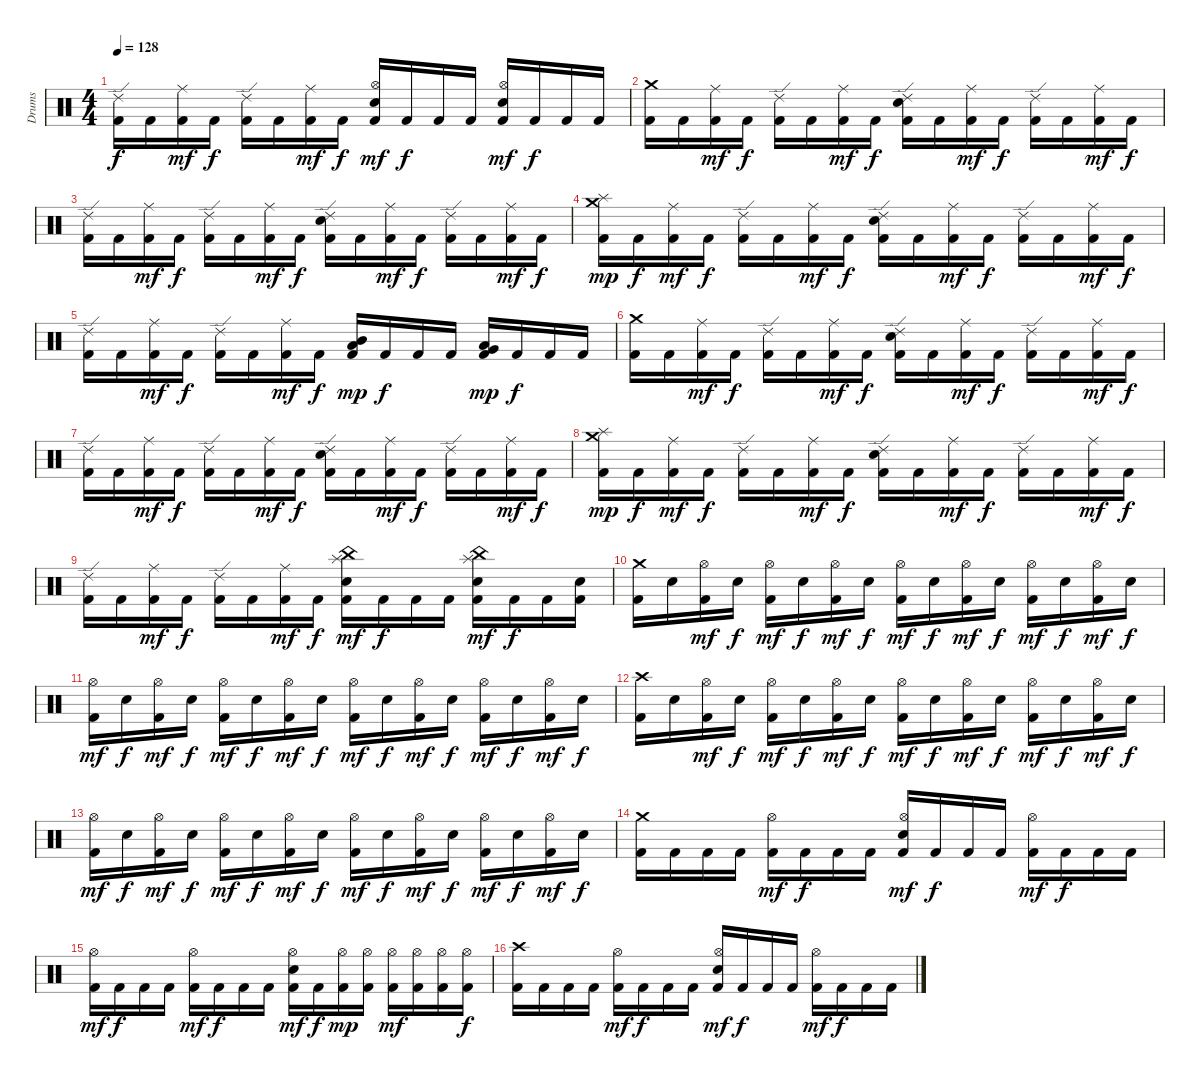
\track ("Drums" "Drums") {instrument percussion}
\staff {score}
\articulation defaults
\ts (4 4)
\tempo 128
\clef neutral
\ks c
("Ride (edge) 2" "Kick (hit) 2").16{dy f} "Kick (hit) 2".16 ("Ride (middle)" "Kick (hit) 2").16{dy mf} "Kick (hit) 2".16{dy f} ("Ride (edge) 2" "Kick (hit) 2").16 "Kick (hit) 2".16 ("Ride (middle)" "Kick (hit) 2").16{dy mf} "Kick (hit) 2".16{dy f} ("Hi-Hat (open)" "Electric Snare (hit)" "Kick (hit) 2").16{dy mf} "Kick (hit) 2".16{dy f} "Kick (hit) 2".16 "Kick (hit) 2".16 ("Hi-Hat (open)" "Electric Snare (hit)" "Kick (hit) 2").16{dy mf} "Kick (hit) 2".16{dy f} "Kick (hit) 2".16 "Kick (hit) 2".16 |
("Crash medium (hit)" "Kick (hit) 2").16 "Kick (hit) 2".16 ("Ride (middle)" "Kick (hit) 2").16{dy mf} "Kick (hit) 2".16{dy f} ("Ride (edge) 2" "Kick (hit) 2").16 "Kick (hit) 2".16 ("Ride (middle)" "Kick (hit) 2").16{dy mf} "Kick (hit) 2".16{dy f} ("Ride (edge) 2" "Electric Snare (hit)" "Kick (hit) 2").16 "Kick (hit) 2".16 ("Ride (middle)" "Kick (hit) 2").16{dy mf} "Kick (hit) 2".16{dy f} ("Ride (edge) 2" "Kick (hit) 2").16 "Kick (hit) 2".16 ("Ride (middle)" "Kick (hit) 2").16{dy mf} "Kick (hit) 2".16{dy f} |
("Ride (edge) 2" "Kick (hit) 2").16 "Kick (hit) 2".16 ("Ride (middle)" "Kick (hit) 2").16{dy mf} "Kick (hit) 2".16{dy f} ("Ride (edge) 2" "Kick (hit) 2").16 "Kick (hit) 2".16 ("Ride (middle)" "Kick (hit) 2").16{dy mf} "Kick (hit) 2".16{dy f} ("Ride (edge) 2" "Electric Snare (hit)" "Kick (hit) 2").16 "Kick (hit) 2".16 ("Ride (middle)" "Kick (hit) 2").16{dy mf} "Kick (hit) 2".16{dy f} ("Ride (edge) 2" "Kick (hit) 2").16 "Kick (hit) 2".16 ("Ride (middle)" "Kick (hit) 2").16{dy mf} "Kick (hit) 2".16{dy f} |
("Crash medium (hit)" "Splash (hit)" "Kick (hit) 2").16{dy mp} "Kick (hit) 2".16{dy f} ("Ride (middle)" "Kick (hit) 2").16{dy mf} "Kick (hit) 2".16{dy f} ("Ride (edge) 2" "Kick (hit) 2").16 "Kick (hit) 2".16 ("Ride (middle)" "Kick (hit) 2").16{dy mf} "Kick (hit) 2".16{dy f} ("Ride (edge) 2" "Electric Snare (hit)" "Kick (hit) 2").16 "Kick (hit) 2".16 ("Ride (middle)" "Kick (hit) 2").16{dy mf} "Kick (hit) 2".16{dy f} ("Ride (edge) 2" "Kick (hit) 2").16 "Kick (hit) 2".16 ("Ride (middle)" "Kick (hit) 2").16{dy mf} "Kick (hit) 2".16{dy f} |
("Ride (edge) 2" "Kick (hit) 2").16 "Kick (hit) 2".16 ("Ride (middle)" "Kick (hit) 2").16{dy mf} "Kick (hit) 2".16{dy f} ("Ride (edge) 2" "Kick (hit) 2").16 "Kick (hit) 2".16 ("Ride (middle)" "Kick (hit) 2").16{dy mf} "Kick (hit) 2".16{dy f} ("Mid Tom (hit)" "Low Tom (hit)" "Kick (hit) 2").16{dy mp} "Kick (hit) 2".16{dy f} "Kick (hit) 2".16 "Kick (hit) 2".16 ("Low Tom (hit)" "Very Low Tom (hit)" "Kick (hit) 2").16{dy mp} "Kick (hit) 2".16{dy f} "Kick (hit) 2".16 "Kick (hit) 2".16 |
("Crash medium (hit)" "Kick (hit) 2").16 "Kick (hit) 2".16 ("Ride (middle)" "Kick (hit) 2").16{dy mf} "Kick (hit) 2".16{dy f} ("Ride (edge) 2" "Kick (hit) 2").16 "Kick (hit) 2".16 ("Ride (middle)" "Kick (hit) 2").16{dy mf} "Kick (hit) 2".16{dy f} ("Ride (edge) 2" "Electric Snare (hit)" "Kick (hit) 2").16 "Kick (hit) 2".16 ("Ride (middle)" "Kick (hit) 2").16{dy mf} "Kick (hit) 2".16{dy f} ("Ride (edge) 2" "Kick (hit) 2").16 "Kick (hit) 2".16 ("Ride (middle)" "Kick (hit) 2").16{dy mf} "Kick (hit) 2".16{dy f} |
("Ride (edge) 2" "Kick (hit) 2").16 "Kick (hit) 2".16 ("Ride (middle)" "Kick (hit) 2").16{dy mf} "Kick (hit) 2".16{dy f} ("Ride (edge) 2" "Kick (hit) 2").16 "Kick (hit) 2".16 ("Ride (middle)" "Kick (hit) 2").16{dy mf} "Kick (hit) 2".16{dy f} ("Ride (edge) 2" "Electric Snare (hit)" "Kick (hit) 2").16 "Kick (hit) 2".16 ("Ride (middle)" "Kick (hit) 2").16{dy mf} "Kick (hit) 2".16{dy f} ("Ride (edge) 2" "Kick (hit) 2").16 "Kick (hit) 2".16 ("Ride (middle)" "Kick (hit) 2").16{dy mf} "Kick (hit) 2".16{dy f} |
("Crash medium (hit)" "Splash (hit)" "Kick (hit) 2").16{dy mp} "Kick (hit) 2".16{dy f} ("Ride (middle)" "Kick (hit) 2").16{dy mf} "Kick (hit) 2".16{dy f} ("Ride (edge) 2" "Kick (hit) 2").16 "Kick (hit) 2".16 ("Ride (middle)" "Kick (hit) 2").16{dy mf} "Kick (hit) 2".16{dy f} ("Ride (edge) 2" "Electric Snare (hit)" "Kick (hit) 2").16 "Kick (hit) 2".16 ("Ride (middle)" "Kick (hit) 2").16{dy mf} "Kick (hit) 2".16{dy f} ("Ride (edge) 2" "Kick (hit) 2").16 "Kick (hit) 2".16 ("Ride (middle)" "Kick (hit) 2").16{dy mf} "Kick (hit) 2".16{dy f} |
("Ride (edge) 2" "Kick (hit) 2").16 "Kick (hit) 2".16 ("Ride (middle)" "Kick (hit) 2").16{dy mf} "Kick (hit) 2".16{dy f} ("Ride (edge) 2" "Kick (hit) 2").16 "Kick (hit) 2".16 ("Ride (middle)" "Kick (hit) 2").16{dy mf} "Kick (hit) 2".16{dy f} ("China (hit)" "Splash (hit)" "Electric Snare (hit)" "Kick (hit) 2").16{dy mf} "Kick (hit) 2".16{dy f} "Kick (hit) 2".16 "Kick (hit) 2".16 ("China (hit)" "Splash (hit)" "Electric Snare (hit)" "Kick (hit) 2").16{dy mf} "Kick (hit) 2".16{dy f} "Kick (hit) 2".16 ("Electric Snare (hit)" "Kick (hit) 2").16 |
("Crash medium (hit)" "Kick (hit) 2").16 "Electric Snare (hit)".16 ("Hi-Hat (open)" "Kick (hit) 2").16{dy mf} "Electric Snare (hit)".16{dy f} ("Hi-Hat (open)" "Kick (hit) 2").16{dy mf} "Electric Snare (hit)".16{dy f} ("Hi-Hat (open)" "Kick (hit) 2").16{dy mf} "Electric Snare (hit)".16{dy f} ("Hi-Hat (open)" "Kick (hit) 2").16{dy mf} "Electric Snare (hit)".16{dy f} ("Hi-Hat (open)" "Kick (hit) 2").16{dy mf} "Electric Snare (hit)".16{dy f} ("Hi-Hat (open)" "Kick (hit) 2").16{dy mf} "Electric Snare (hit)".16{dy f} ("Hi-Hat (open)" "Kick (hit) 2").16{dy mf} "Electric Snare (hit)".16{dy f} |
("Hi-Hat (open)" "Kick (hit) 2").16{dy mf} "Electric Snare (hit)".16{dy f} ("Hi-Hat (open)" "Kick (hit) 2").16{dy mf} "Electric Snare (hit)".16{dy f} ("Hi-Hat (open)" "Kick (hit) 2").16{dy mf} "Electric Snare (hit)".16{dy f} ("Hi-Hat (open)" "Kick (hit) 2").16{dy mf} "Electric Snare (hit)".16{dy f} ("Hi-Hat (open)" "Kick (hit) 2").16{dy mf} "Electric Snare (hit)".16{dy f} ("Hi-Hat (open)" "Kick (hit) 2").16{dy mf} "Electric Snare (hit)".16{dy f} ("Hi-Hat (open)" "Kick (hit) 2").16{dy mf} "Electric Snare (hit)".16{dy f} ("Hi-Hat (open)" "Kick (hit) 2").16{dy mf} "Electric Snare (hit)".16{dy f} |
("Crash high (hit)" "Kick (hit) 2").16 "Electric Snare (hit)".16 ("Hi-Hat (open)" "Kick (hit) 2").16{dy mf} "Electric Snare (hit)".16{dy f} ("Hi-Hat (open)" "Kick (hit) 2").16{dy mf} "Electric Snare (hit)".16{dy f} ("Hi-Hat (open)" "Kick (hit) 2").16{dy mf} "Electric Snare (hit)".16{dy f} ("Hi-Hat (open)" "Kick (hit) 2").16{dy mf} "Electric Snare (hit)".16{dy f} ("Hi-Hat (open)" "Kick (hit) 2").16{dy mf} "Electric Snare (hit)".16{dy f} ("Hi-Hat (open)" "Kick (hit) 2").16{dy mf} "Electric Snare (hit)".16{dy f} ("Hi-Hat (open)" "Kick (hit) 2").16{dy mf} "Electric Snare (hit)".16{dy f} |
("Hi-Hat (open)" "Kick (hit) 2").16{dy mf} "Electric Snare (hit)".16{dy f} ("Hi-Hat (open)" "Kick (hit) 2").16{dy mf} "Electric Snare (hit)".16{dy f} ("Hi-Hat (open)" "Kick (hit) 2").16{dy mf} "Electric Snare (hit)".16{dy f} ("Hi-Hat (open)" "Kick (hit) 2").16{dy mf} "Electric Snare (hit)".16{dy f} ("Hi-Hat (open)" "Kick (hit) 2").16{dy mf} "Electric Snare (hit)".16{dy f} ("Hi-Hat (open)" "Kick (hit) 2").16{dy mf} "Electric Snare (hit)".16{dy f} ("Hi-Hat (open)" "Kick (hit) 2").16{dy mf} "Electric Snare (hit)".16{dy f} ("Hi-Hat (open)" "Kick (hit) 2").16{dy mf} "Electric Snare (hit)".16{dy f} |
("Crash medium (hit)" "Kick (hit) 2").16 "Kick (hit) 2".16 "Kick (hit) 2".16 "Kick (hit) 2".16 ("Hi-Hat (open)" "Kick (hit) 2").16{dy mf} "Kick (hit) 2".16{dy f} "Kick (hit) 2".16 "Kick (hit) 2".16 ("Hi-Hat (open)" "Electric Snare (hit)" "Kick (hit) 2").16{dy mf} "Kick (hit) 2".16{dy f} "Kick (hit) 2".16 "Kick (hit) 2".16 ("Hi-Hat (open)" "Kick (hit) 2").16{dy mf} "Kick (hit) 2".16{dy f} "Kick (hit) 2".16 "Kick (hit) 2".16 |
("Hi-Hat (open)" "Kick (hit) 2").16{dy mf} "Kick (hit) 2".16{dy f} "Kick (hit) 2".16 "Kick (hit) 2".16 ("Hi-Hat (open)" "Kick (hit) 2").16{dy mf} "Kick (hit) 2".16{dy f} "Kick (hit) 2".16 "Kick (hit) 2".16 ("Hi-Hat (open)" "Electric Snare (hit)" "Kick (hit) 2").16{dy mf} "Kick (hit) 2".16{dy f} ("Hi-Hat (open)" "Kick (hit) 2").16{dy mp} ("Hi-Hat (open)" "Kick (hit) 2").16 ("Hi-Hat (open)" "Kick (hit) 2").16{dy mf} ("Hi-Hat (open)" "Kick (hit) 2").16 ("Hi-Hat (open)" "Kick (hit) 2").16 ("Hi-Hat (open)" "Kick (hit) 2").16{dy f} |
("Crash high (hit)" "Kick (hit) 2").16 "Kick (hit) 2".16 "Kick (hit) 2".16 "Kick (hit) 2".16 ("Hi-Hat (open)" "Kick (hit) 2").16{dy mf} "Kick (hit) 2".16{dy f} "Kick (hit) 2".16 "Kick (hit) 2".16 ("Hi-Hat (open)" "Electric Snare (hit)" "Kick (hit) 2").16{dy mf} "Kick (hit) 2".16{dy f} "Kick (hit) 2".16 "Kick (hit) 2".16 ("Hi-Hat (open)" "Kick (hit) 2").16{dy mf} "Kick (hit) 2".16{dy f} "Kick (hit) 2".16 "Kick (hit) 2".16
